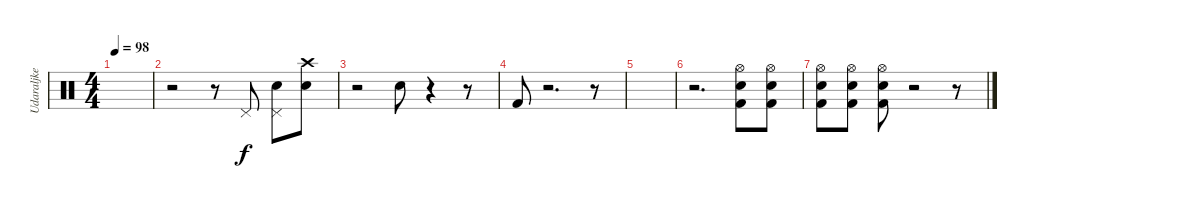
\track ("Udaraljke" "Udaraljke") {instrument percussion}
\staff {score}
\articulation defaults
\ts (4 4)
\tempo 98
\clef neutral
\ks c
|
r.2 r.8 "Pedal Hi-Hat (hit)".8 ("Pedal Hi-Hat (hit)" "Snare (hit) 2").8 ("Crash high (hit)" "Snare (hit) 2").8 |
r.2 "Electric Snare (hit)".8 r.4 r.8 |
"Kick (hit) 2".8 r.2{d} r.8 |
|
r.2{d} ("Hi-Hat (open)" "Kick (hit) 2" "Snare (hit) 2").8 ("Hi-Hat (open)" "Kick (hit) 2" "Snare (hit) 2").8 |
("Hi-Hat (open)" "Kick (hit) 2" "Snare (hit) 2").8 ("Hi-Hat (open)" "Kick (hit) 2" "Snare (hit) 2").8 ("Hi-Hat (open)" "Kick (hit) 2" "Snare (hit) 2").8 r.2 r.8
